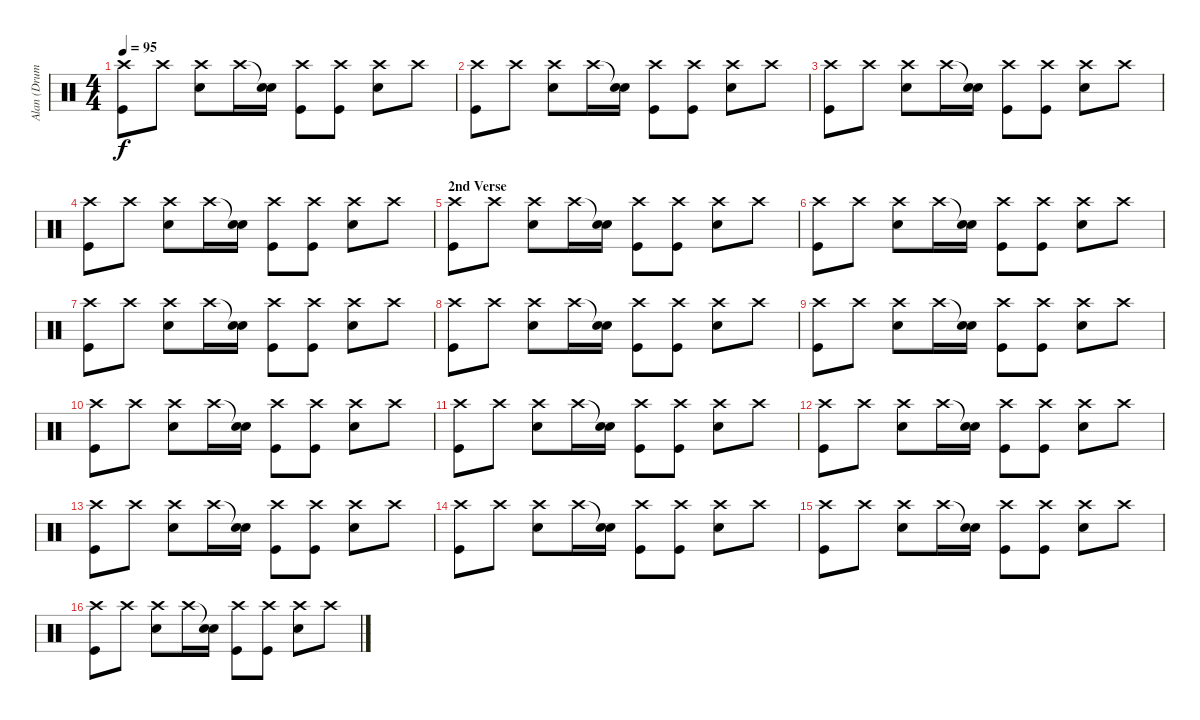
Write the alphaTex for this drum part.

\track ("Alan (Drums)" "Alan (Drum") {instrument percussion}
\staff {score}
\articulation defaults
\ts (4 4)
\tempo 95
\clef neutral
\ks c
("Crash high (hit)" "Kick (hit)").8{dy f} "Crash high (hit)".8 ("Crash high (hit)" "Electric Snare (hit)").8 "Crash high (hit)".16 ("Snare (hit)"{t} "Electric Snare (hit)").16 ("Crash high (hit)" "Kick (hit)").8 ("Crash high (hit)" "Kick (hit)").8 ("Crash high (hit)" "Electric Snare (hit)").8 "Crash high (hit)".8 |
("Crash high (hit)" "Kick (hit)").8 "Crash high (hit)".8 ("Crash high (hit)" "Electric Snare (hit)").8 "Crash high (hit)".16 ("Snare (hit)"{t} "Electric Snare (hit)").16 ("Crash high (hit)" "Kick (hit)").8 ("Crash high (hit)" "Kick (hit)").8 ("Crash high (hit)" "Electric Snare (hit)").8 "Crash high (hit)".8 |
("Crash high (hit)" "Kick (hit)").8 "Crash high (hit)".8 ("Crash high (hit)" "Electric Snare (hit)").8 "Crash high (hit)".16 ("Snare (hit)"{t} "Electric Snare (hit)").16 ("Crash high (hit)" "Kick (hit)").8 ("Crash high (hit)" "Kick (hit)").8 ("Crash high (hit)" "Electric Snare (hit)").8 "Crash high (hit)".8 |
("Crash high (hit)" "Kick (hit)").8 "Crash high (hit)".8 ("Crash high (hit)" "Electric Snare (hit)").8 "Crash high (hit)".16 ("Snare (hit)"{t} "Electric Snare (hit)").16 ("Crash high (hit)" "Kick (hit)").8 ("Crash high (hit)" "Kick (hit)").8 ("Crash high (hit)" "Electric Snare (hit)").8 "Crash high (hit)".8 |
\section ("" "2nd Verse")
("Crash high (hit)" "Kick (hit)").8 "Crash high (hit)".8 ("Crash high (hit)" "Electric Snare (hit)").8 "Crash high (hit)".16 ("Snare (hit)"{t} "Electric Snare (hit)").16 ("Crash high (hit)" "Kick (hit)").8 ("Crash high (hit)" "Kick (hit)").8 ("Crash high (hit)" "Electric Snare (hit)").8 "Crash high (hit)".8 |
("Crash high (hit)" "Kick (hit)").8 "Crash high (hit)".8 ("Crash high (hit)" "Electric Snare (hit)").8 "Crash high (hit)".16 ("Snare (hit)"{t} "Electric Snare (hit)").16 ("Crash high (hit)" "Kick (hit)").8 ("Crash high (hit)" "Kick (hit)").8 ("Crash high (hit)" "Electric Snare (hit)").8 "Crash high (hit)".8 |
("Crash high (hit)" "Kick (hit)").8 "Crash high (hit)".8 ("Crash high (hit)" "Electric Snare (hit)").8 "Crash high (hit)".16 ("Snare (hit)"{t} "Electric Snare (hit)").16 ("Crash high (hit)" "Kick (hit)").8 ("Crash high (hit)" "Kick (hit)").8 ("Crash high (hit)" "Electric Snare (hit)").8 "Crash high (hit)".8 |
("Crash high (hit)" "Kick (hit)").8 "Crash high (hit)".8 ("Crash high (hit)" "Electric Snare (hit)").8 "Crash high (hit)".16 ("Snare (hit)"{t} "Electric Snare (hit)").16 ("Crash high (hit)" "Kick (hit)").8 ("Crash high (hit)" "Kick (hit)").8 ("Crash high (hit)" "Electric Snare (hit)").8 "Crash high (hit)".8 |
("Crash high (hit)" "Kick (hit)").8 "Crash high (hit)".8 ("Crash high (hit)" "Electric Snare (hit)").8 "Crash high (hit)".16 ("Snare (hit)"{t} "Electric Snare (hit)").16 ("Crash high (hit)" "Kick (hit)").8 ("Crash high (hit)" "Kick (hit)").8 ("Crash high (hit)" "Electric Snare (hit)").8 "Crash high (hit)".8 |
("Crash high (hit)" "Kick (hit)").8 "Crash high (hit)".8 ("Crash high (hit)" "Electric Snare (hit)").8 "Crash high (hit)".16 ("Snare (hit)"{t} "Electric Snare (hit)").16 ("Crash high (hit)" "Kick (hit)").8 ("Crash high (hit)" "Kick (hit)").8 ("Crash high (hit)" "Electric Snare (hit)").8 "Crash high (hit)".8 |
("Crash high (hit)" "Kick (hit)").8 "Crash high (hit)".8 ("Crash high (hit)" "Electric Snare (hit)").8 "Crash high (hit)".16 ("Snare (hit)"{t} "Electric Snare (hit)").16 ("Crash high (hit)" "Kick (hit)").8 ("Crash high (hit)" "Kick (hit)").8 ("Crash high (hit)" "Electric Snare (hit)").8 "Crash high (hit)".8 |
("Crash high (hit)" "Kick (hit)").8 "Crash high (hit)".8 ("Crash high (hit)" "Electric Snare (hit)").8 "Crash high (hit)".16 ("Snare (hit)"{t} "Electric Snare (hit)").16 ("Crash high (hit)" "Kick (hit)").8 ("Crash high (hit)" "Kick (hit)").8 ("Crash high (hit)" "Electric Snare (hit)").8 "Crash high (hit)".8 |
("Crash high (hit)" "Kick (hit)").8 "Crash high (hit)".8 ("Crash high (hit)" "Electric Snare (hit)").8 "Crash high (hit)".16 ("Snare (hit)"{t} "Electric Snare (hit)").16 ("Crash high (hit)" "Kick (hit)").8 ("Crash high (hit)" "Kick (hit)").8 ("Crash high (hit)" "Electric Snare (hit)").8 "Crash high (hit)".8 |
("Crash high (hit)" "Kick (hit)").8 "Crash high (hit)".8 ("Crash high (hit)" "Electric Snare (hit)").8 "Crash high (hit)".16 ("Snare (hit)"{t} "Electric Snare (hit)").16 ("Crash high (hit)" "Kick (hit)").8 ("Crash high (hit)" "Kick (hit)").8 ("Crash high (hit)" "Electric Snare (hit)").8 "Crash high (hit)".8 |
("Crash high (hit)" "Kick (hit)").8 "Crash high (hit)".8 ("Crash high (hit)" "Electric Snare (hit)").8 "Crash high (hit)".16 ("Snare (hit)"{t} "Electric Snare (hit)").16 ("Crash high (hit)" "Kick (hit)").8 ("Crash high (hit)" "Kick (hit)").8 ("Crash high (hit)" "Electric Snare (hit)").8 "Crash high (hit)".8 |
("Crash high (hit)" "Kick (hit)").8 "Crash high (hit)".8 ("Crash high (hit)" "Electric Snare (hit)").8 "Crash high (hit)".16 ("Snare (hit)"{t} "Electric Snare (hit)").16 ("Crash high (hit)" "Kick (hit)").8 ("Crash high (hit)" "Kick (hit)").8 ("Crash high (hit)" "Electric Snare (hit)").8 "Crash high (hit)".8
